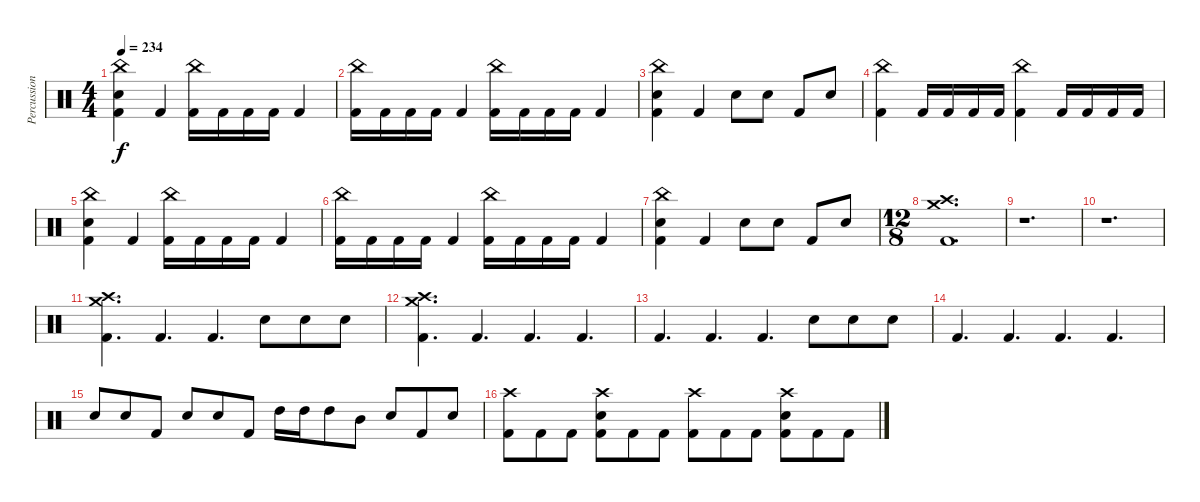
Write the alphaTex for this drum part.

\track ("Percussion" "Percussion") {instrument percussion}
\staff {score}
\articulation defaults
\ts (4 4)
\tempo 234
\clef neutral
\ks c
("China (hit)" "Electric Snare (hit)" "Kick (hit) 2").4{dy f} "Kick (hit) 2".4 ("China (hit)" "Kick (hit) 2").16 "Kick (hit) 2".16 "Kick (hit) 2".16 "Kick (hit) 2".16 "Kick (hit) 2".4 |
("China (hit)" "Kick (hit) 2").16 "Kick (hit) 2".16 "Kick (hit) 2".16 "Kick (hit) 2".16 "Kick (hit) 2".4 ("China (hit)" "Kick (hit) 2").16 "Kick (hit) 2".16 "Kick (hit) 2".16 "Kick (hit) 2".16 "Kick (hit) 2".4 |
("China (hit)" "Electric Snare (hit)" "Kick (hit) 2").4 "Kick (hit) 2".4 "Electric Snare (hit)".8 "Electric Snare (hit)".8 "Kick (hit) 2".8 "Electric Snare (hit)".8 |
("China (hit)" "Kick (hit) 2").4 "Kick (hit) 2".16 "Kick (hit) 2".16 "Kick (hit) 2".16 "Kick (hit) 2".16 ("China (hit)" "Kick (hit) 2").4 "Kick (hit) 2".16 "Kick (hit) 2".16 "Kick (hit) 2".16 "Kick (hit) 2".16 |
("China (hit)" "Electric Snare (hit)" "Kick (hit) 2").4 "Kick (hit) 2".4 ("China (hit)" "Kick (hit) 2").16 "Kick (hit) 2".16 "Kick (hit) 2".16 "Kick (hit) 2".16 "Kick (hit) 2".4 |
("China (hit)" "Kick (hit) 2").16 "Kick (hit) 2".16 "Kick (hit) 2".16 "Kick (hit) 2".16 "Kick (hit) 2".4 ("China (hit)" "Kick (hit) 2").16 "Kick (hit) 2".16 "Kick (hit) 2".16 "Kick (hit) 2".16 "Kick (hit) 2".4 |
("China (hit)" "Electric Snare (hit)" "Kick (hit) 2").4 "Kick (hit) 2".4 "Electric Snare (hit)".8 "Electric Snare (hit)".8 "Kick (hit) 2".8 "Electric Snare (hit)".8 |
\ts (12 8)
("Crash high (hit)" "Crash medium (hit)" "Kick (hit) 2").1{d} |
r.1{d} |
r.1{d} |
("Crash high (hit)" "Crash medium (hit)" "Kick (hit) 2").4{d} "Kick (hit) 2".4{d} "Kick (hit) 2".4{d} "Electric Snare (hit)".8 "Electric Snare (hit)".8 "Electric Snare (hit)".8 |
("Crash high (hit)" "Crash medium (hit)" "Kick (hit) 2").4{d} "Kick (hit) 2".4{d} "Kick (hit) 2".4{d} "Kick (hit) 2".4{d} |
"Kick (hit) 2".4{d} "Kick (hit) 2".4{d} "Kick (hit) 2".4{d} "Electric Snare (hit)".8 "Electric Snare (hit)".8 "Electric Snare (hit)".8 |
"Kick (hit) 2".4{d} "Kick (hit) 2".4{d} "Kick (hit) 2".4{d} "Kick (hit) 2".4{d} |
"Electric Snare (hit)".8 "Electric Snare (hit)".8 "Kick (hit) 2".8 "Electric Snare (hit)".8 "Electric Snare (hit)".8 "Kick (hit) 2".8 "High Tom (hit)".16 "High Tom (hit)".16 "High Tom (hit)".8 "Mid Tom (hit)".8 "Electric Snare (hit)".8 "Kick (hit) 2".8 "Electric Snare (hit)".8 |
("Crash high (hit)" "Kick (hit) 2").8 "Kick (hit) 2".8 "Kick (hit) 2".8 ("Crash high (hit)" "Electric Snare (hit)" "Kick (hit) 2").8 "Kick (hit) 2".8 "Kick (hit) 2".8 ("Crash high (hit)" "Kick (hit) 2").8 "Kick (hit) 2".8 "Kick (hit) 2".8 ("Crash high (hit)" "Electric Snare (hit)" "Kick (hit) 2").8 "Kick (hit) 2".8 "Kick (hit) 2".8
